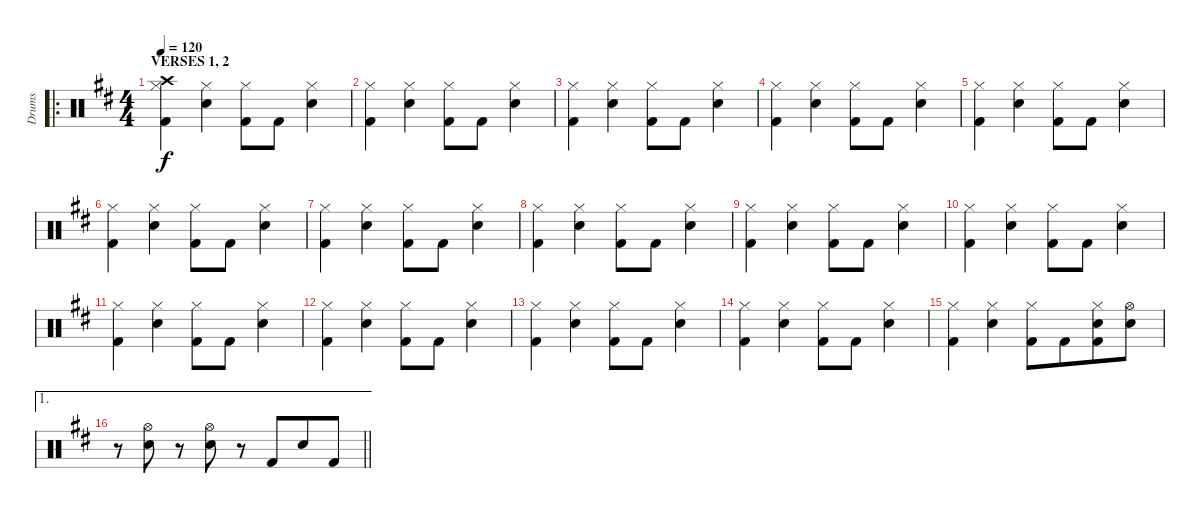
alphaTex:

\track ("Drums" "Drums") {instrument percussion}
\staff {score}
\articulation defaults
\ro
\ts (4 4)
\section ("" "VERSES 1, 2")
\tempo 120
\clef neutral
\ks d
("Crash high (hit)" "Hi-Hat (closed)" "Kick (hit) 2").4{dy f} ("Hi-Hat (closed)" "Electric Snare (hit)").4 ("Hi-Hat (closed)" "Kick (hit) 2").8 "Kick (hit) 2".8 ("Hi-Hat (closed)" "Electric Snare (hit)").4 |
("Hi-Hat (closed)" "Kick (hit) 2").4 ("Hi-Hat (closed)" "Electric Snare (hit)").4 ("Hi-Hat (closed)" "Kick (hit) 2").8 "Kick (hit) 2".8 ("Hi-Hat (closed)" "Electric Snare (hit)").4 |
("Hi-Hat (closed)" "Kick (hit) 2").4 ("Hi-Hat (closed)" "Electric Snare (hit)").4 ("Hi-Hat (closed)" "Kick (hit) 2").8 "Kick (hit) 2".8 ("Hi-Hat (closed)" "Electric Snare (hit)").4 |
("Hi-Hat (closed)" "Kick (hit) 2").4 ("Hi-Hat (closed)" "Electric Snare (hit)").4 ("Hi-Hat (closed)" "Kick (hit) 2").8 "Kick (hit) 2".8 ("Hi-Hat (closed)" "Electric Snare (hit)").4 |
("Hi-Hat (closed)" "Kick (hit) 2").4 ("Hi-Hat (closed)" "Electric Snare (hit)").4 ("Hi-Hat (closed)" "Kick (hit) 2").8 "Kick (hit) 2".8 ("Hi-Hat (closed)" "Electric Snare (hit)").4 |
("Hi-Hat (closed)" "Kick (hit) 2").4 ("Hi-Hat (closed)" "Electric Snare (hit)").4 ("Hi-Hat (closed)" "Kick (hit) 2").8 "Kick (hit) 2".8 ("Hi-Hat (closed)" "Electric Snare (hit)").4 |
("Hi-Hat (closed)" "Kick (hit) 2").4 ("Hi-Hat (closed)" "Electric Snare (hit)").4 ("Hi-Hat (closed)" "Kick (hit) 2").8 "Kick (hit) 2".8 ("Hi-Hat (closed)" "Electric Snare (hit)").4 |
("Hi-Hat (closed)" "Kick (hit) 2").4 ("Hi-Hat (closed)" "Electric Snare (hit)").4 ("Hi-Hat (closed)" "Kick (hit) 2").8 "Kick (hit) 2".8 ("Hi-Hat (closed)" "Electric Snare (hit)").4 |
("Hi-Hat (closed)" "Kick (hit) 2").4 ("Hi-Hat (closed)" "Electric Snare (hit)").4 ("Hi-Hat (closed)" "Kick (hit) 2").8 "Kick (hit) 2".8 ("Hi-Hat (closed)" "Electric Snare (hit)").4 |
("Hi-Hat (closed)" "Kick (hit) 2").4 ("Hi-Hat (closed)" "Electric Snare (hit)").4 ("Hi-Hat (closed)" "Kick (hit) 2").8 "Kick (hit) 2".8 ("Hi-Hat (closed)" "Electric Snare (hit)").4 |
("Hi-Hat (closed)" "Kick (hit) 2").4 ("Hi-Hat (closed)" "Electric Snare (hit)").4 ("Hi-Hat (closed)" "Kick (hit) 2").8 "Kick (hit) 2".8 ("Hi-Hat (closed)" "Electric Snare (hit)").4 |
("Hi-Hat (closed)" "Kick (hit) 2").4 ("Hi-Hat (closed)" "Electric Snare (hit)").4 ("Hi-Hat (closed)" "Kick (hit) 2").8 "Kick (hit) 2".8 ("Hi-Hat (closed)" "Electric Snare (hit)").4 |
("Hi-Hat (closed)" "Kick (hit) 2").4 ("Hi-Hat (closed)" "Electric Snare (hit)").4 ("Hi-Hat (closed)" "Kick (hit) 2").8 "Kick (hit) 2".8 ("Hi-Hat (closed)" "Electric Snare (hit)").4 |
("Hi-Hat (closed)" "Kick (hit) 2").4 ("Hi-Hat (closed)" "Electric Snare (hit)").4 ("Hi-Hat (closed)" "Kick (hit) 2").8 "Kick (hit) 2".8 ("Hi-Hat (closed)" "Electric Snare (hit)").4 |
("Hi-Hat (closed)" "Kick (hit) 2").4 ("Hi-Hat (closed)" "Electric Snare (hit)").4 ("Hi-Hat (closed)" "Kick (hit) 2").8 "Kick (hit) 2".8{beam merge} ("Hi-Hat (closed)" "Electric Snare (hit)" "Kick (hit) 2").8 ("Hi-Hat (open)" "Electric Snare (hit)").8 |
\ae 1
\barLineRight lightlight
r.8 ("Hi-Hat (open)" "Electric Snare (hit)").8 r.8 ("Hi-Hat (open)" "Electric Snare (hit)").8 r.8 "Kick (hit) 2".8{beam merge} "Electric Snare (hit)".8 "Kick (hit) 2".8
